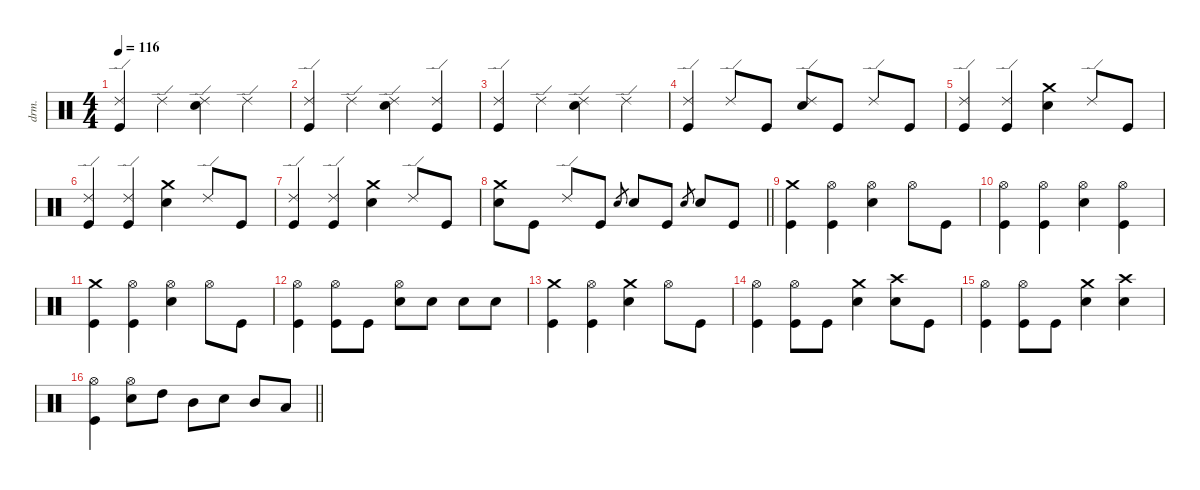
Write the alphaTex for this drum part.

\defaultSystemsLayout 4
\hideDynamics
\bracketExtendMode nobrackets
\otherSystemsTrackNameOrientation horizontal
\track ("Drum" "drm.") {instrument percussion}
\staff {score}
\articulation defaults
\ts (4 4)
\tempo 116
\clef neutral
\ks c
("Kick (hit)" "Ride (edge) 2").4{dy f beam Up} "Ride (edge) 2".4{beam Down} ("Snare (hit) 2" "Ride (edge) 2").4{beam Down} "Ride (edge) 2".4{beam Down} |
("Kick (hit)" "Ride (edge) 2").4{beam Up} "Ride (edge) 2".4{beam Down} ("Snare (hit) 2" "Ride (edge) 2").4{beam Down} ("Kick (hit)" "Ride (edge) 2").4{beam Up} |
("Kick (hit)" "Ride (edge) 2").4{beam Up} "Ride (edge) 2".4{beam Down} ("Snare (hit) 2" "Ride (edge) 2").4{beam Down} "Ride (edge) 2".4{beam Down} |
("Kick (hit)" "Ride (edge) 2").4{beam Up} "Ride (edge) 2".8{beam Up} "Kick (hit)".8{beam Up} ("Snare (hit) 2" "Ride (edge) 2").8{beam Up} "Kick (hit)".8{beam Up} "Ride (edge) 2".8{beam Up} "Kick (hit)".8{beam Up} |
("Kick (hit)" "Ride (edge) 2").4{beam Up} ("Kick (hit)" "Ride (edge) 2").4{beam Up} ("Snare (hit) 2" "Crash medium (hit)").4{beam Down} "Ride (edge) 2".8{beam Up} "Kick (hit)".8{beam Up} |
("Kick (hit)" "Ride (edge) 2").4{beam Up} ("Kick (hit)" "Ride (edge) 2").4{beam Up} ("Snare (hit) 2" "Crash medium (hit)").4{beam Down} "Ride (edge) 2".8{beam Up} "Kick (hit)".8{beam Up} |
("Kick (hit)" "Ride (edge) 2").4{beam Up} ("Kick (hit)" "Ride (edge) 2").4{beam Up} ("Snare (hit) 2" "Crash medium (hit)").4{beam Down} "Ride (edge) 2".8{beam Up} "Kick (hit)".8{beam Up} |
\barLineRight lightlight
("Snare (hit) 2" "Crash medium (hit)").8{beam Down} "Kick (hit)".8{beam Down} "Ride (edge) 2".8{beam Up} "Kick (hit)".8{beam Up} "Electric Snare (hit)".8{gr dy p beam Up} "Snare (hit) 2".8{dy f beam Up} "Kick (hit)".8{beam Up} "Electric Snare (hit)".8{gr dy p beam Up} "Snare (hit) 2".8{dy f beam Up} "Kick (hit)".8{beam Up} |
("Kick (hit)" "Crash medium (hit)").4{beam Down} ("Kick (hit)" "Hi-Hat (open)").4{beam Down} ("Snare (hit) 2" "Hi-Hat (open)").4{beam Down} "Hi-Hat (open)".8{beam Down} "Kick (hit)".8{beam Down} |
("Kick (hit)" "Hi-Hat (open)").4{beam Down} ("Kick (hit)" "Hi-Hat (open)").4{beam Down} ("Snare (hit) 2" "Hi-Hat (open)").4{beam Down} ("Kick (hit)" "Hi-Hat (open)").4{beam Down} |
("Kick (hit)" "Crash medium (hit)").4{beam Down} ("Kick (hit)" "Hi-Hat (open)").4{beam Down} ("Snare (hit) 2" "Hi-Hat (open)").4{beam Down} "Hi-Hat (open)".8{beam Down} "Kick (hit)".8{beam Down} |
("Kick (hit)" "Hi-Hat (open)").4{beam Down} ("Kick (hit)" "Hi-Hat (open)").8{beam Down} "Kick (hit)".8{beam Down} ("Snare (hit) 2" "Hi-Hat (open)").8{beam Down} "Snare (hit) 2".8{beam Down} "Snare (hit) 2".8{beam Down} "Snare (hit) 2".8{beam Down} |
("Kick (hit)" "Crash medium (hit)").4{beam Down} ("Kick (hit)" "Hi-Hat (open)").4{beam Down} ("Snare (hit) 2" "Crash medium (hit)").4{beam Down} "Hi-Hat (open)".8{beam Down} "Kick (hit)".8{beam Down} |
("Kick (hit)" "Hi-Hat (open)").4{beam Down} ("Kick (hit)" "Hi-Hat (open)").8{beam Down} "Kick (hit)".8{beam Down} ("Snare (hit) 2" "Crash medium (hit)").4{beam Down} ("Snare (hit) 2" "Crash high (hit)").8{beam Down} "Kick (hit)".8{beam Down} |
("Kick (hit)" "Hi-Hat (open)").4{beam Down} ("Kick (hit)" "Hi-Hat (open)").8{beam Down} "Kick (hit)".8{beam Down} ("Snare (hit) 2" "Crash medium (hit)").4{beam Down} ("Snare (hit) 2" "Crash high (hit)").4{beam Down} |
\barLineRight lightlight
("Kick (hit)" "Hi-Hat (open)").4{beam Down} ("Snare (hit) 2" "Hi-Hat (open)").8{beam Down} "High Tom (hit)".8{beam Down} "Mid Tom (hit)".8{beam Down} "Snare (hit) 2".8{beam Down} "Mid Tom (hit)".8{beam Up} "Low Tom (hit)".8{beam Up}
